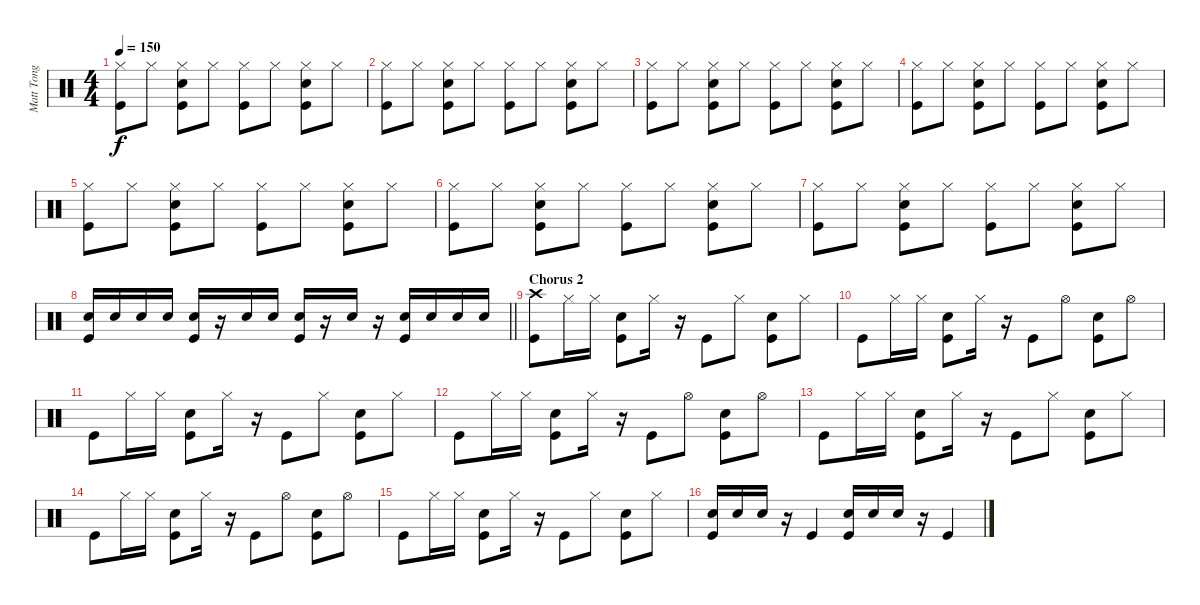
\track ("Matt Tong (Drums)" "Matt Tong ") {instrument percussion}
\staff {score}
\articulation defaults
\ts (4 4)
\tempo 150
\clef neutral
\ks c
("Hi-Hat (closed)" "Kick (hit)").8{dy f} "Hi-Hat (closed)".8 ("Hi-Hat (closed)" "Electric Snare (hit)" "Kick (hit)").8 "Hi-Hat (closed)".8 ("Hi-Hat (closed)" "Kick (hit)").8 "Hi-Hat (closed)".8 ("Hi-Hat (closed)" "Electric Snare (hit)" "Kick (hit)").8 "Hi-Hat (closed)".8 |
("Hi-Hat (closed)" "Kick (hit)").8 "Hi-Hat (closed)".8 ("Hi-Hat (closed)" "Electric Snare (hit)" "Kick (hit)").8 "Hi-Hat (closed)".8 ("Hi-Hat (closed)" "Kick (hit)").8 "Hi-Hat (closed)".8 ("Hi-Hat (closed)" "Electric Snare (hit)" "Kick (hit)").8 "Hi-Hat (closed)".8 |
("Hi-Hat (closed)" "Kick (hit)").8 "Hi-Hat (closed)".8 ("Hi-Hat (closed)" "Electric Snare (hit)" "Kick (hit)").8 "Hi-Hat (closed)".8 ("Hi-Hat (closed)" "Kick (hit)").8 "Hi-Hat (closed)".8 ("Hi-Hat (closed)" "Electric Snare (hit)" "Kick (hit)").8 "Hi-Hat (closed)".8 |
("Hi-Hat (closed)" "Kick (hit)").8 "Hi-Hat (closed)".8 ("Hi-Hat (closed)" "Electric Snare (hit)" "Kick (hit)").8 "Hi-Hat (closed)".8 ("Hi-Hat (closed)" "Kick (hit)").8 "Hi-Hat (closed)".8 ("Hi-Hat (closed)" "Electric Snare (hit)" "Kick (hit)").8 "Hi-Hat (closed)".8 |
("Hi-Hat (closed)" "Kick (hit)").8 "Hi-Hat (closed)".8 ("Hi-Hat (closed)" "Electric Snare (hit)" "Kick (hit)").8 "Hi-Hat (closed)".8 ("Hi-Hat (closed)" "Kick (hit)").8 "Hi-Hat (closed)".8 ("Hi-Hat (closed)" "Electric Snare (hit)" "Kick (hit)").8 "Hi-Hat (closed)".8 |
("Hi-Hat (closed)" "Kick (hit)").8 "Hi-Hat (closed)".8 ("Hi-Hat (closed)" "Electric Snare (hit)" "Kick (hit)").8 "Hi-Hat (closed)".8 ("Hi-Hat (closed)" "Kick (hit)").8 "Hi-Hat (closed)".8 ("Hi-Hat (closed)" "Electric Snare (hit)" "Kick (hit)").8 "Hi-Hat (closed)".8 |
("Hi-Hat (closed)" "Kick (hit)").8 "Hi-Hat (closed)".8 ("Hi-Hat (closed)" "Electric Snare (hit)" "Kick (hit)").8 "Hi-Hat (closed)".8 ("Hi-Hat (closed)" "Kick (hit)").8 "Hi-Hat (closed)".8 ("Hi-Hat (closed)" "Electric Snare (hit)" "Kick (hit)").8 "Hi-Hat (closed)".8 |
\barLineRight lightlight
("Electric Snare (hit)" "Kick (hit)").16 "Electric Snare (hit)".16 "Electric Snare (hit)".16 "Electric Snare (hit)".16 ("Electric Snare (hit)" "Kick (hit)").16 r.16 "Electric Snare (hit)".16 "Electric Snare (hit)".16 ("Electric Snare (hit)" "Kick (hit)").16 r.16 "Electric Snare (hit)".16 r.16 ("Electric Snare (hit)" "Kick (hit)").16 "Electric Snare (hit)".16 "Electric Snare (hit)".16 "Electric Snare (hit)".16 |
\section ("" "Chorus 2")
("Crash high (hit)" "Kick (hit)").8 "Hi-Hat (closed)".16 "Hi-Hat (closed)".16 ("Electric Snare (hit)" "Kick (hit)").8 "Hi-Hat (closed)".16 r.16 "Kick (hit)".8 "Hi-Hat (closed)".8 ("Electric Snare (hit)" "Kick (hit)").8 "Hi-Hat (closed)".8 |
"Kick (hit)".8 "Hi-Hat (closed)".16 "Hi-Hat (closed)".16 ("Electric Snare (hit)" "Kick (hit)").8 "Hi-Hat (closed)".16 r.16 "Kick (hit)".8 "Hi-Hat (open)".8 ("Electric Snare (hit)" "Kick (hit)").8 "Hi-Hat (open)".8 |
"Kick (hit)".8 "Hi-Hat (closed)".16 "Hi-Hat (closed)".16 ("Electric Snare (hit)" "Kick (hit)").8 "Hi-Hat (closed)".16 r.16 "Kick (hit)".8 "Hi-Hat (closed)".8 ("Electric Snare (hit)" "Kick (hit)").8 "Hi-Hat (closed)".8 |
"Kick (hit)".8 "Hi-Hat (closed)".16 "Hi-Hat (closed)".16 ("Electric Snare (hit)" "Kick (hit)").8 "Hi-Hat (closed)".16 r.16 "Kick (hit)".8 "Hi-Hat (open)".8 ("Electric Snare (hit)" "Kick (hit)").8 "Hi-Hat (open)".8 |
"Kick (hit)".8 "Hi-Hat (closed)".16 "Hi-Hat (closed)".16 ("Electric Snare (hit)" "Kick (hit)").8 "Hi-Hat (closed)".16 r.16 "Kick (hit)".8 "Hi-Hat (closed)".8 ("Electric Snare (hit)" "Kick (hit)").8 "Hi-Hat (closed)".8 |
"Kick (hit)".8 "Hi-Hat (closed)".16 "Hi-Hat (closed)".16 ("Electric Snare (hit)" "Kick (hit)").8 "Hi-Hat (closed)".16 r.16 "Kick (hit)".8 "Hi-Hat (open)".8 ("Electric Snare (hit)" "Kick (hit)").8 "Hi-Hat (open)".8 |
"Kick (hit)".8 "Hi-Hat (closed)".16 "Hi-Hat (closed)".16 ("Electric Snare (hit)" "Kick (hit)").8 "Hi-Hat (closed)".16 r.16 "Kick (hit)".8 "Hi-Hat (closed)".8 ("Electric Snare (hit)" "Kick (hit)").8 "Hi-Hat (closed)".8 |
("Electric Snare (hit)" "Kick (hit)").16 "Electric Snare (hit)".16 "Electric Snare (hit)".16 r.16 "Kick (hit)".4 ("Electric Snare (hit)" "Kick (hit)").16 "Electric Snare (hit)".16 "Electric Snare (hit)".16 r.16 "Kick (hit)".4
